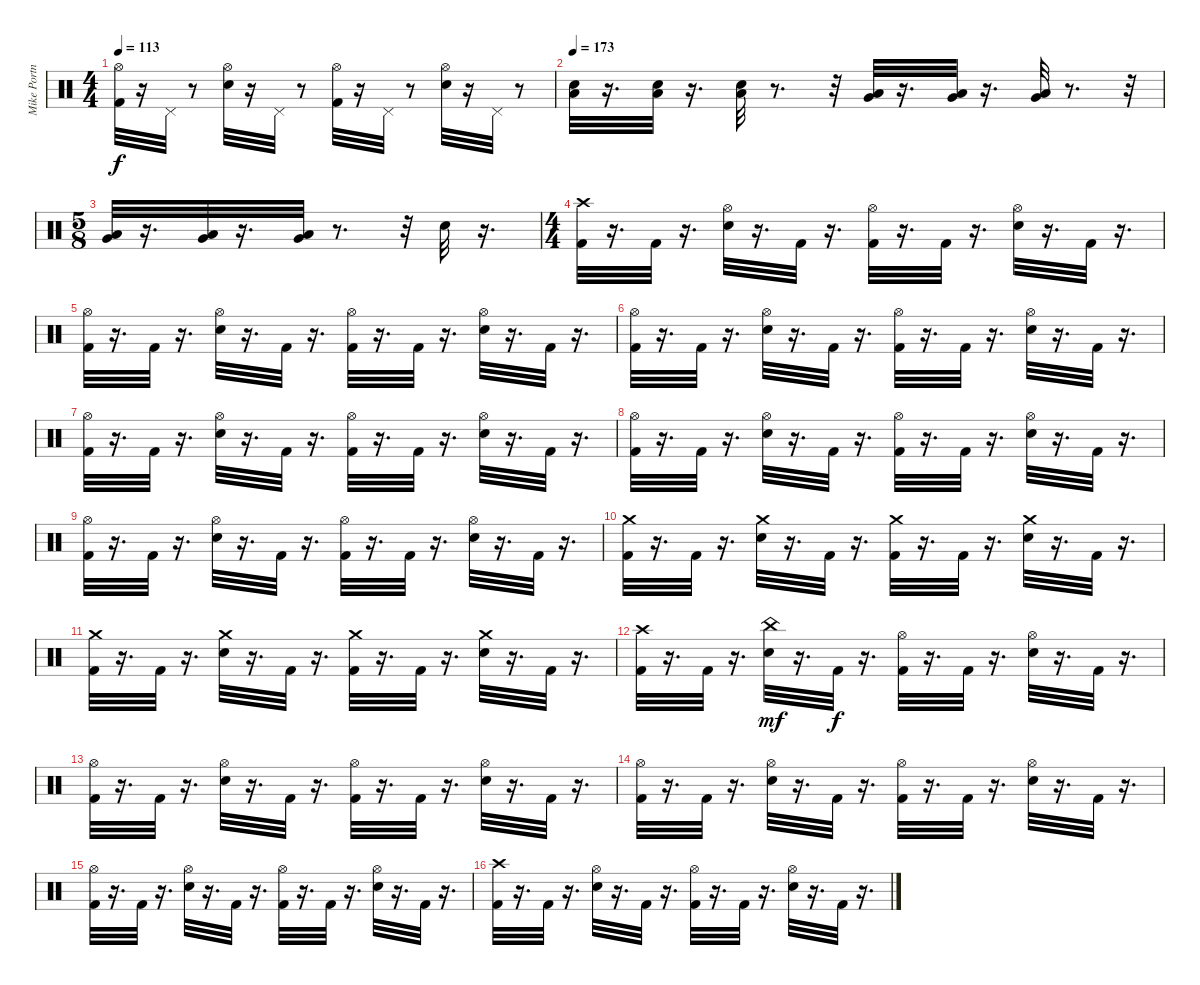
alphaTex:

\track ("Mike Portnoy" "Mike Portn") {instrument percussion}
\staff {score}
\articulation defaults
\ts (4 4)
\tempo 113
\clef neutral
\ks c
("Hi-Hat (open)" "Kick (hit) 2").32{dy f} r.16 "Pedal Hi-Hat (hit)".32 r.8 ("Hi-Hat (open)" "Snare (hit) 2").32 r.16 "Pedal Hi-Hat (hit)".32 r.8 ("Hi-Hat (open)" "Kick (hit) 2").32 r.16 "Pedal Hi-Hat (hit)".32 r.8 ("Hi-Hat (open)" "Snare (hit) 2").32 r.16 "Pedal Hi-Hat (hit)".32 r.8 |
\tempo 173
("Low Floor Tom (hit)" "Snare (hit) 2").32 r.16{d} ("Low Floor Tom (hit)" "Snare (hit) 2").32 r.16{d} ("Low Floor Tom (hit)" "Snare (hit) 2").32 r.8{d} r.32 ("Low Tom (hit)" "Very Low Tom (hit)").32 r.16{d} ("Low Tom (hit)" "Very Low Tom (hit)").32 r.16{d} ("Low Tom (hit)" "Very Low Tom (hit)").32 r.8{d} r.32 |
\ts (5 8)
("Very Low Tom (hit)" "Low Floor Tom (hit)").32 r.16{d} ("Very Low Tom (hit)" "Low Floor Tom (hit)").32 r.16{d} ("Very Low Tom (hit)" "Low Floor Tom (hit)").32 r.8{d} r.32 "Snare (hit) 2".32 r.16{d} |
\ts (4 4)
("Crash high (hit)" "Kick (hit) 2").32 r.16{d} "Kick (hit) 2".32 r.16{d} ("Hi-Hat (open)" "Snare (hit) 2").32 r.16{d} "Kick (hit) 2".32 r.16{d} ("Hi-Hat (open)" "Kick (hit) 2").32 r.16{d} "Kick (hit) 2".32 r.16{d} ("Hi-Hat (open)" "Snare (hit) 2").32 r.16{d} "Kick (hit) 2".32 r.16{d} |
("Hi-Hat (open)" "Kick (hit) 2").32 r.16{d} "Kick (hit) 2".32 r.16{d} ("Snare (hit) 2" "Hi-Hat (open)").32 r.16{d} "Kick (hit) 2".32 r.16{d} ("Kick (hit) 2" "Hi-Hat (open)").32 r.16{d} "Kick (hit) 2".32 r.16{d} ("Snare (hit) 2" "Hi-Hat (open)").32 r.16{d} "Kick (hit) 2".32 r.16{d} |
("Hi-Hat (open)" "Kick (hit) 2").32 r.16{d} "Kick (hit) 2".32 r.16{d} ("Snare (hit) 2" "Hi-Hat (open)").32 r.16{d} "Kick (hit) 2".32 r.16{d} ("Kick (hit) 2" "Hi-Hat (open)").32 r.16{d} "Kick (hit) 2".32 r.16{d} ("Snare (hit) 2" "Hi-Hat (open)").32 r.16{d} "Kick (hit) 2".32 r.16{d} |
("Hi-Hat (open)" "Kick (hit) 2").32 r.16{d} "Kick (hit) 2".32 r.16{d} ("Snare (hit) 2" "Hi-Hat (open)").32 r.16{d} "Kick (hit) 2".32 r.16{d} ("Kick (hit) 2" "Hi-Hat (open)").32 r.16{d} "Kick (hit) 2".32 r.16{d} ("Snare (hit) 2" "Hi-Hat (open)").32 r.16{d} "Kick (hit) 2".32 r.16{d} |
("Hi-Hat (open)" "Kick (hit) 2").32 r.16{d} "Kick (hit) 2".32 r.16{d} ("Snare (hit) 2" "Hi-Hat (open)").32 r.16{d} "Kick (hit) 2".32 r.16{d} ("Kick (hit) 2" "Hi-Hat (open)").32 r.16{d} "Kick (hit) 2".32 r.16{d} ("Snare (hit) 2" "Hi-Hat (open)").32 r.16{d} "Kick (hit) 2".32 r.16{d} |
("Hi-Hat (open)" "Kick (hit) 2").32 r.16{d} "Kick (hit) 2".32 r.16{d} ("Snare (hit) 2" "Hi-Hat (open)").32 r.16{d} "Kick (hit) 2".32 r.16{d} ("Kick (hit) 2" "Hi-Hat (open)").32 r.16{d} "Kick (hit) 2".32 r.16{d} ("Snare (hit) 2" "Hi-Hat (open)").32 r.16{d} "Kick (hit) 2".32 r.16{d} |
("Crash medium (hit)" "Kick (hit) 2").32 r.16{d} "Kick (hit) 2".32 r.16{d} ("Crash medium (hit)" "Snare (hit) 2").32 r.16{d} "Kick (hit) 2".32 r.16{d} ("Crash medium (hit)" "Kick (hit) 2").32 r.16{d} "Kick (hit) 2".32 r.16{d} ("Crash medium (hit)" "Snare (hit) 2").32 r.16{d} "Kick (hit) 2".32 r.16{d} |
("Crash medium (hit)" "Kick (hit) 2").32 r.16{d} "Kick (hit) 2".32 r.16{d} ("Crash medium (hit)" "Snare (hit) 2").32 r.16{d} "Kick (hit) 2".32 r.16{d} ("Crash medium (hit)" "Kick (hit) 2").32 r.16{d} "Kick (hit) 2".32 r.16{d} ("Crash medium (hit)" "Snare (hit) 2").32 r.16{d} "Kick (hit) 2".32 r.16{d} |
("Crash high (hit)" "Kick (hit) 2").32 r.16{d} "Kick (hit) 2".32 r.16{d} ("Snare (hit) 2" "China (hit)").32{dy mf} r.16{d} "Kick (hit) 2".32{dy f} r.16{d} ("Kick (hit) 2" "Hi-Hat (open)").32 r.16{d} "Kick (hit) 2".32 r.16{d} ("Snare (hit) 2" "Hi-Hat (open)").32 r.16{d} "Kick (hit) 2".32 r.16{d} |
("Hi-Hat (open)" "Kick (hit) 2").32 r.16{d} "Kick (hit) 2".32 r.16{d} ("Snare (hit) 2" "Hi-Hat (open)").32 r.16{d} "Kick (hit) 2".32 r.16{d} ("Kick (hit) 2" "Hi-Hat (open)").32 r.16{d} "Kick (hit) 2".32 r.16{d} ("Snare (hit) 2" "Hi-Hat (open)").32 r.16{d} "Kick (hit) 2".32 r.16{d} |
("Hi-Hat (open)" "Kick (hit) 2").32 r.16{d} "Kick (hit) 2".32 r.16{d} ("Snare (hit) 2" "Hi-Hat (open)").32 r.16{d} "Kick (hit) 2".32 r.16{d} ("Kick (hit) 2" "Hi-Hat (open)").32 r.16{d} "Kick (hit) 2".32 r.16{d} ("Snare (hit) 2" "Hi-Hat (open)").32 r.16{d} "Kick (hit) 2".32 r.16{d} |
("Hi-Hat (open)" "Kick (hit) 2").32 r.16{d} "Kick (hit) 2".32 r.16{d} ("Snare (hit) 2" "Hi-Hat (open)").32 r.16{d} "Kick (hit) 2".32 r.16{d} ("Kick (hit) 2" "Hi-Hat (open)").32 r.16{d} "Kick (hit) 2".32 r.16{d} ("Snare (hit) 2" "Hi-Hat (open)").32 r.16{d} "Kick (hit) 2".32 r.16{d} |
("Crash high (hit)" "Kick (hit) 2").32 r.16{d} "Kick (hit) 2".32 r.16{d} ("Snare (hit) 2" "Hi-Hat (open)").32 r.16{d} "Kick (hit) 2".32 r.16{d} ("Kick (hit) 2" "Hi-Hat (open)").32 r.16{d} "Kick (hit) 2".32 r.16{d} ("Snare (hit) 2" "Hi-Hat (open)").32 r.16{d} "Kick (hit) 2".32 r.16{d}
